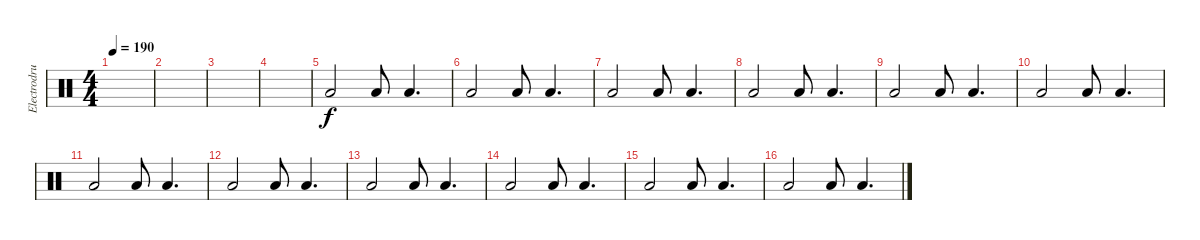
\track ("Electrodrums3" "Electrodru") {instrument percussion}
\staff {score}
\articulation defaults
\ts (4 4)
\tempo 190
\clef neutral
\ks c
|
|
|
|
"Low Floor Tom (hit)".2 "Low Floor Tom (hit)".8 "Low Floor Tom (hit)".4{d} |
"Low Floor Tom (hit)".2 "Low Floor Tom (hit)".8 "Low Floor Tom (hit)".4{d} |
"Low Floor Tom (hit)".2 "Low Floor Tom (hit)".8 "Low Floor Tom (hit)".4{d} |
"Low Floor Tom (hit)".2 "Low Floor Tom (hit)".8 "Low Floor Tom (hit)".4{d} |
"Low Floor Tom (hit)".2 "Low Floor Tom (hit)".8 "Low Floor Tom (hit)".4{d} |
"Low Floor Tom (hit)".2 "Low Floor Tom (hit)".8 "Low Floor Tom (hit)".4{d} |
"Low Floor Tom (hit)".2 "Low Floor Tom (hit)".8 "Low Floor Tom (hit)".4{d} |
"Low Floor Tom (hit)".2 "Low Floor Tom (hit)".8 "Low Floor Tom (hit)".4{d} |
"Low Floor Tom (hit)".2 "Low Floor Tom (hit)".8 "Low Floor Tom (hit)".4{d} |
"Low Floor Tom (hit)".2 "Low Floor Tom (hit)".8 "Low Floor Tom (hit)".4{d} |
"Low Floor Tom (hit)".2 "Low Floor Tom (hit)".8 "Low Floor Tom (hit)".4{d} |
"Low Floor Tom (hit)".2 "Low Floor Tom (hit)".8 "Low Floor Tom (hit)".4{d}
